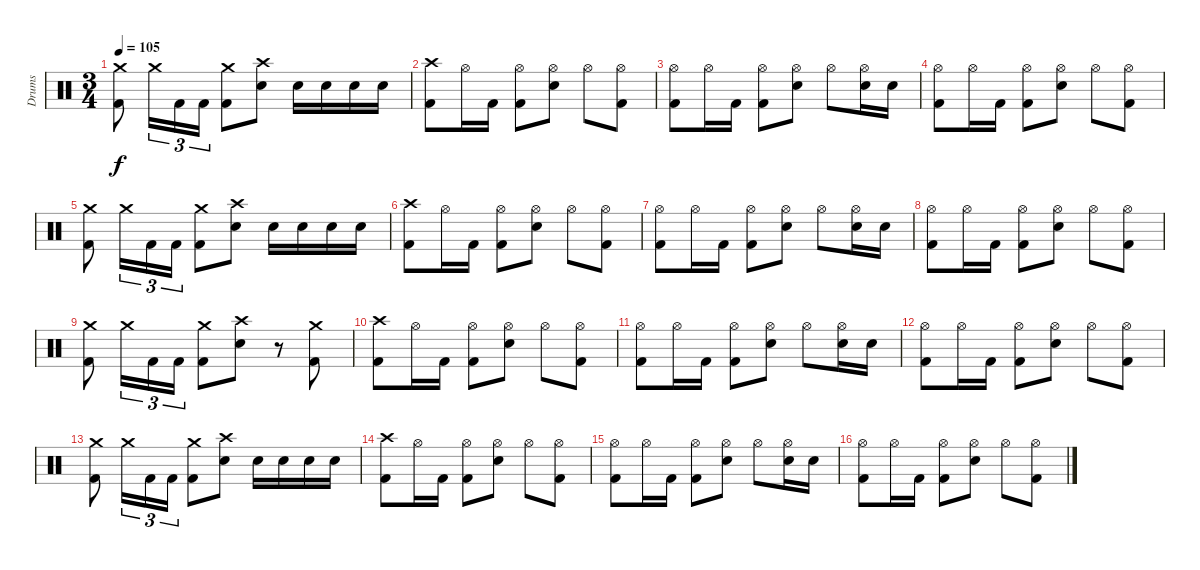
\track ("Drums" "Drums") {instrument percussion}
\staff {score}
\articulation defaults
\ts (3 4)
\tempo 105
\clef neutral
\ks c
("Crash medium (hit)" "Kick (hit) 2").8{dy f} "Crash medium (hit)".16{tu (3 2)} "Kick (hit) 2".16{tu (3 2)} "Kick (hit) 2".16{tu (3 2)} ("Crash medium (hit)" "Kick (hit) 2").8 ("Crash high (hit)" "Electric Snare (hit)").8 "Electric Snare (hit)".16 "Electric Snare (hit)".16 "Electric Snare (hit)".16 "Electric Snare (hit)".16 |
("Crash high (hit)" "Kick (hit) 2").8 "Hi-Hat (open)".16 "Kick (hit) 2".16 ("Hi-Hat (open)" "Kick (hit) 2").8 ("Hi-Hat (open)" "Electric Snare (hit)").8 "Hi-Hat (open)".8 ("Hi-Hat (open)" "Kick (hit) 2").8 |
("Hi-Hat (open)" "Kick (hit) 2").8 "Hi-Hat (open)".16 "Kick (hit) 2".16 ("Hi-Hat (open)" "Kick (hit) 2").8 ("Hi-Hat (open)" "Electric Snare (hit)").8 "Hi-Hat (open)".8 ("Hi-Hat (open)" "Electric Snare (hit)").16 "Electric Snare (hit)".16 |
("Hi-Hat (open)" "Kick (hit) 2").8 "Hi-Hat (open)".16 "Kick (hit) 2".16 ("Hi-Hat (open)" "Kick (hit) 2").8 ("Hi-Hat (open)" "Electric Snare (hit)").8 "Hi-Hat (open)".8 ("Hi-Hat (open)" "Kick (hit) 2").8 |
("Crash medium (hit)" "Kick (hit) 2").8 "Crash medium (hit)".16{tu (3 2)} "Kick (hit) 2".16{tu (3 2)} "Kick (hit) 2".16{tu (3 2)} ("Crash medium (hit)" "Kick (hit) 2").8 ("Crash high (hit)" "Electric Snare (hit)").8 "Electric Snare (hit)".16 "Electric Snare (hit)".16 "Electric Snare (hit)".16 "Electric Snare (hit)".16 |
("Crash high (hit)" "Kick (hit) 2").8 "Hi-Hat (open)".16 "Kick (hit) 2".16 ("Hi-Hat (open)" "Kick (hit) 2").8 ("Hi-Hat (open)" "Electric Snare (hit)").8 "Hi-Hat (open)".8 ("Hi-Hat (open)" "Kick (hit) 2").8 |
("Hi-Hat (open)" "Kick (hit) 2").8 "Hi-Hat (open)".16 "Kick (hit) 2".16 ("Hi-Hat (open)" "Kick (hit) 2").8 ("Hi-Hat (open)" "Electric Snare (hit)").8 "Hi-Hat (open)".8 ("Hi-Hat (open)" "Electric Snare (hit)").16 "Electric Snare (hit)".16 |
("Hi-Hat (open)" "Kick (hit) 2").8 "Hi-Hat (open)".16 "Kick (hit) 2".16 ("Hi-Hat (open)" "Kick (hit) 2").8 ("Hi-Hat (open)" "Electric Snare (hit)").8 "Hi-Hat (open)".8 ("Hi-Hat (open)" "Kick (hit) 2").8 |
("Crash medium (hit)" "Kick (hit) 2").8 "Crash medium (hit)".16{tu (3 2)} "Kick (hit) 2".16{tu (3 2)} "Kick (hit) 2".16{tu (3 2)} ("Crash medium (hit)" "Kick (hit) 2").8 ("Crash high (hit)" "Electric Snare (hit)").8 r.8 ("Crash medium (hit)" "Kick (hit) 2").8 |
("Crash high (hit)" "Kick (hit) 2").8 "Hi-Hat (open)".16 "Kick (hit) 2".16 ("Hi-Hat (open)" "Kick (hit) 2").8 ("Hi-Hat (open)" "Electric Snare (hit)").8 "Hi-Hat (open)".8 ("Hi-Hat (open)" "Kick (hit) 2").8 |
("Hi-Hat (open)" "Kick (hit) 2").8 "Hi-Hat (open)".16 "Kick (hit) 2".16 ("Hi-Hat (open)" "Kick (hit) 2").8 ("Hi-Hat (open)" "Electric Snare (hit)").8 "Hi-Hat (open)".8 ("Hi-Hat (open)" "Electric Snare (hit)").16 "Electric Snare (hit)".16 |
("Hi-Hat (open)" "Kick (hit) 2").8 "Hi-Hat (open)".16 "Kick (hit) 2".16 ("Hi-Hat (open)" "Kick (hit) 2").8 ("Hi-Hat (open)" "Electric Snare (hit)").8 "Hi-Hat (open)".8 ("Hi-Hat (open)" "Kick (hit) 2").8 |
("Crash medium (hit)" "Kick (hit) 2").8 "Crash medium (hit)".16{tu (3 2)} "Kick (hit) 2".16{tu (3 2)} "Kick (hit) 2".16{tu (3 2)} ("Crash medium (hit)" "Kick (hit) 2").8 ("Crash high (hit)" "Electric Snare (hit)").8 "Electric Snare (hit)".16 "Electric Snare (hit)".16 "Electric Snare (hit)".16 "Electric Snare (hit)".16 |
("Crash high (hit)" "Kick (hit) 2").8 "Hi-Hat (open)".16 "Kick (hit) 2".16 ("Hi-Hat (open)" "Kick (hit) 2").8 ("Hi-Hat (open)" "Electric Snare (hit)").8 "Hi-Hat (open)".8 ("Hi-Hat (open)" "Kick (hit) 2").8 |
("Hi-Hat (open)" "Kick (hit) 2").8 "Hi-Hat (open)".16 "Kick (hit) 2".16 ("Hi-Hat (open)" "Kick (hit) 2").8 ("Hi-Hat (open)" "Electric Snare (hit)").8 "Hi-Hat (open)".8 ("Hi-Hat (open)" "Electric Snare (hit)").16 "Electric Snare (hit)".16 |
("Hi-Hat (open)" "Kick (hit) 2").8 "Hi-Hat (open)".16 "Kick (hit) 2".16 ("Hi-Hat (open)" "Kick (hit) 2").8 ("Hi-Hat (open)" "Electric Snare (hit)").8 "Hi-Hat (open)".8 ("Hi-Hat (open)" "Kick (hit) 2").8
